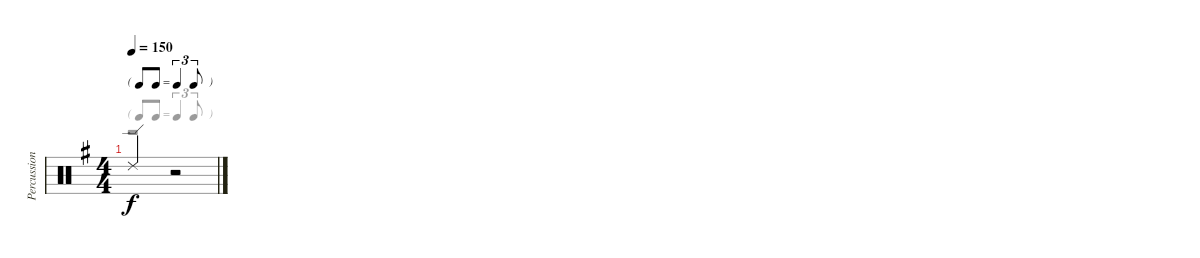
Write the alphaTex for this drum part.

\track ("Percussion" "Percussion") {instrument percussion}
\staff {score}
\articulation defaults
\voice
\ts (4 4)
\tf triplet8th
\tempo 150
\clef neutral
\ks g "Ride (edge) 2".2{dy f}
r.2
\voice
\clef neutral
\ottava regular
\simile none
\ks g
r.1{dy f}
